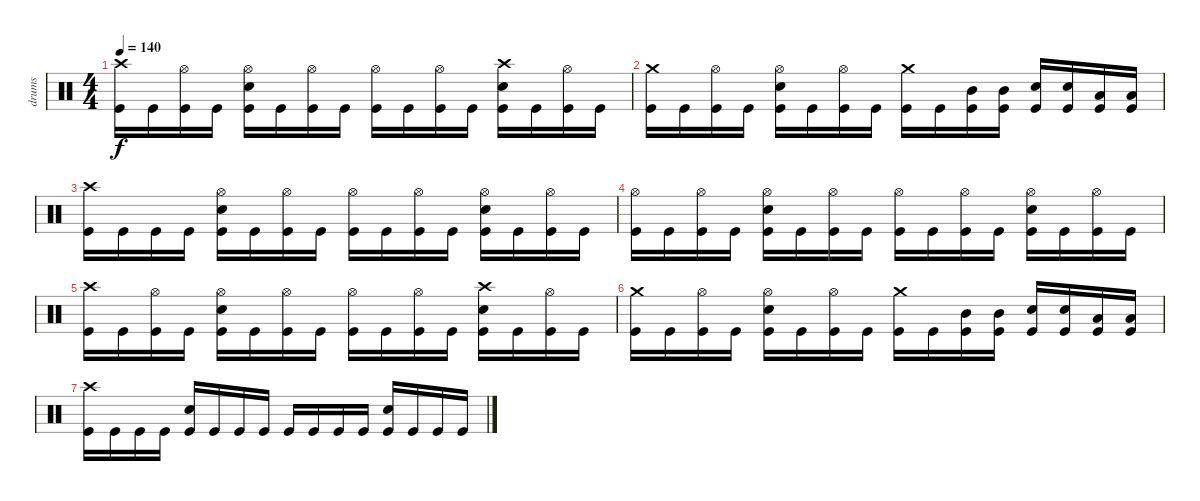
\track ("drums" "drums") {instrument percussion}
\staff {score}
\articulation defaults
\ts (4 4)
\tempo 140
\clef neutral
\ks c
("Crash high (hit)" "Kick (hit)").16{dy f} "Kick (hit)".16 ("Hi-Hat (open)" "Kick (hit)").16 "Kick (hit)".16 ("Hi-Hat (open)" "Snare (hit) 2" "Kick (hit)").16 "Kick (hit)".16 ("Hi-Hat (open)" "Kick (hit)").16 "Kick (hit)".16 ("Hi-Hat (open)" "Kick (hit)").16 "Kick (hit)".16 ("Hi-Hat (open)" "Kick (hit)").16 "Kick (hit)".16 ("Crash high (hit)" "Snare (hit) 2" "Kick (hit)").16 "Kick (hit)".16 ("Hi-Hat (open)" "Kick (hit)").16 "Kick (hit)".16 |
("Crash medium (hit)" "Kick (hit)").16 "Kick (hit)".16 ("Hi-Hat (open)" "Kick (hit)").16 "Kick (hit)".16 ("Hi-Hat (open)" "Snare (hit) 2" "Kick (hit)").16 "Kick (hit)".16 ("Hi-Hat (open)" "Kick (hit)").16 "Kick (hit)".16 ("Crash medium (hit)" "Kick (hit)").16 "Kick (hit)".16 ("Mid Tom (hit)" "Kick (hit)").16 ("Mid Tom (hit)" "Kick (hit)").16 ("Snare (hit) 2" "Kick (hit)").16 ("Snare (hit) 2" "Kick (hit)").16 ("Low Tom (hit)" "Kick (hit)").16 ("Low Tom (hit)" "Kick (hit)").16 |
("Crash high (hit)" "Kick (hit)").16 "Kick (hit)".16 "Kick (hit)".16 "Kick (hit)".16 ("Hi-Hat (open)" "Snare (hit) 2" "Kick (hit)").16 "Kick (hit)".16 ("Hi-Hat (open)" "Kick (hit)").16 "Kick (hit)".16 ("Hi-Hat (open)" "Kick (hit)").16 "Kick (hit)".16 ("Hi-Hat (open)" "Kick (hit)").16 "Kick (hit)".16 ("Hi-Hat (open)" "Snare (hit) 2" "Kick (hit)").16 "Kick (hit)".16 ("Hi-Hat (open)" "Kick (hit)").16 "Kick (hit)".16 |
("Hi-Hat (open)" "Kick (hit)").16 "Kick (hit)".16 ("Hi-Hat (open)" "Kick (hit)").16 "Kick (hit)".16 ("Hi-Hat (open)" "Snare (hit) 2" "Kick (hit)").16 "Kick (hit)".16 ("Hi-Hat (open)" "Kick (hit)").16 "Kick (hit)".16 ("Hi-Hat (open)" "Kick (hit)").16 "Kick (hit)".16 ("Hi-Hat (open)" "Kick (hit)").16 "Kick (hit)".16 ("Hi-Hat (open)" "Snare (hit) 2" "Kick (hit)").16 "Kick (hit)".16 ("Hi-Hat (open)" "Kick (hit)").16 "Kick (hit)".16 |
("Crash high (hit)" "Kick (hit)").16 "Kick (hit)".16 ("Hi-Hat (open)" "Kick (hit)").16 "Kick (hit)".16 ("Hi-Hat (open)" "Snare (hit) 2" "Kick (hit)").16 "Kick (hit)".16 ("Hi-Hat (open)" "Kick (hit)").16 "Kick (hit)".16 ("Hi-Hat (open)" "Kick (hit)").16 "Kick (hit)".16 ("Hi-Hat (open)" "Kick (hit)").16 "Kick (hit)".16 ("Crash high (hit)" "Snare (hit) 2" "Kick (hit)").16 "Kick (hit)".16 ("Hi-Hat (open)" "Kick (hit)").16 "Kick (hit)".16 |
("Crash medium (hit)" "Kick (hit)").16 "Kick (hit)".16 ("Hi-Hat (open)" "Kick (hit)").16 "Kick (hit)".16 ("Hi-Hat (open)" "Snare (hit) 2" "Kick (hit)").16 "Kick (hit)".16 ("Hi-Hat (open)" "Kick (hit)").16 "Kick (hit)".16 ("Crash medium (hit)" "Kick (hit)").16 "Kick (hit)".16 ("Mid Tom (hit)" "Kick (hit)").16 ("Mid Tom (hit)" "Kick (hit)").16 ("Snare (hit) 2" "Kick (hit)").16 ("Snare (hit) 2" "Kick (hit)").16 ("Low Tom (hit)" "Kick (hit)").16 ("Low Tom (hit)" "Kick (hit)").16 |
("Crash high (hit)" "Kick (hit)").16 "Kick (hit)".16 "Kick (hit)".16 "Kick (hit)".16 ("Snare (hit) 2" "Kick (hit)").16 "Kick (hit)".16 "Kick (hit)".16 "Kick (hit)".16 "Kick (hit)".16 "Kick (hit)".16 "Kick (hit)".16 "Kick (hit)".16 ("Snare (hit) 2" "Kick (hit)").16 "Kick (hit)".16 "Kick (hit)".16 "Kick (hit)".16
